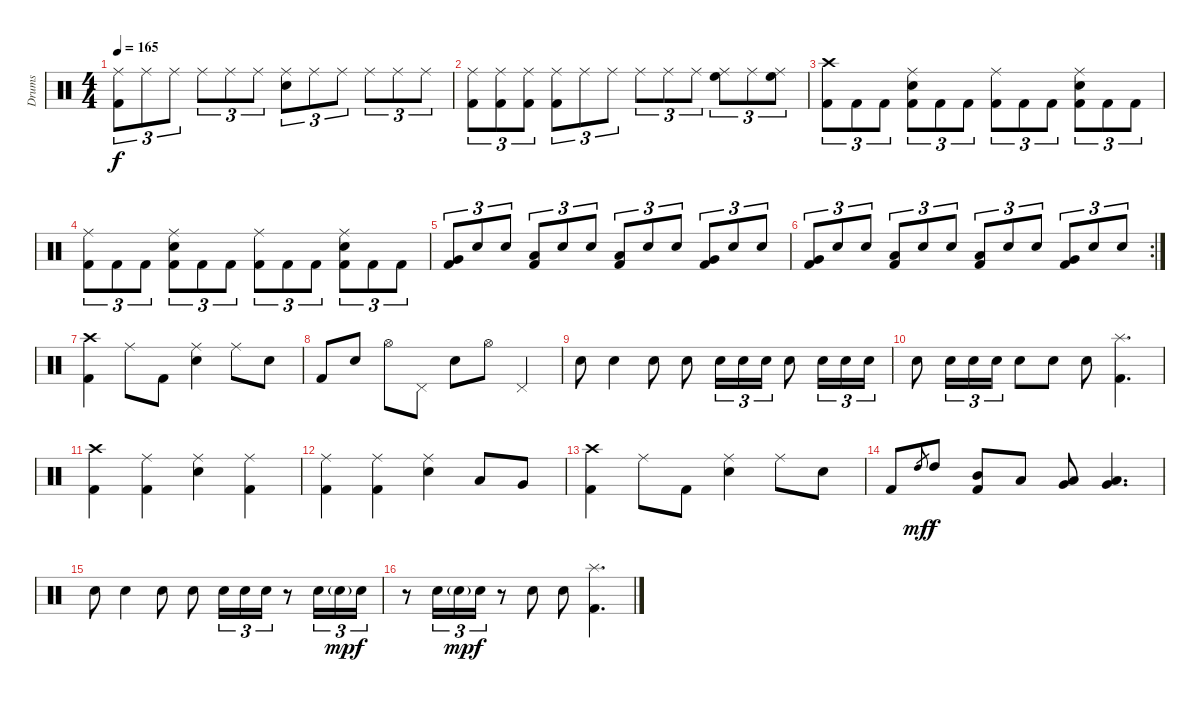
\track ("Drums" "Drums") {instrument percussion}
\staff {score}
\articulation defaults
\ts (4 4)
\tempo 165
\clef neutral
\ks c
("Ride (middle)" "Kick (hit) 2").8{tu (3 2) dy f} "Ride (middle)".8{tu (3 2)} "Ride (middle)".8{tu (3 2)} "Ride (middle)".8{tu (3 2)} "Ride (middle)".8{tu (3 2)} "Ride (middle)".8{tu (3 2)} ("Ride (middle)" "Electric Snare (hit)").8{tu (3 2)} "Ride (middle)".8{tu (3 2)} "Ride (middle)".8{tu (3 2)} "Ride (middle)".8{tu (3 2)} "Ride (middle)".8{tu (3 2)} "Ride (middle)".8{tu (3 2)} |
("Ride (middle)" "Kick (hit) 2").8{tu (3 2)} ("Ride (middle)" "Kick (hit) 2").8{tu (3 2)} ("Ride (middle)" "Kick (hit) 2").8{tu (3 2)} ("Ride (middle)" "Kick (hit) 2").8{tu (3 2)} "Ride (middle)".8{tu (3 2)} "Ride (middle)".8{tu (3 2)} "Ride (middle)".8{tu (3 2)} "Ride (middle)".8{tu (3 2)} "Ride (middle)".8{tu (3 2)} ("Ride (middle)" "High Floor Tom (hit)").8{tu (3 2)} "Ride (middle)".8{tu (3 2)} ("Ride (middle)" "High Floor Tom (hit)").8{tu (3 2)} |
("Crash high (hit)" "Kick (hit) 2").8{tu (3 2)} "Kick (hit) 2".8{tu (3 2)} "Kick (hit) 2".8{tu (3 2)} ("Ride (middle)" "Electric Snare (hit)" "Kick (hit) 2").8{tu (3 2)} "Kick (hit) 2".8{tu (3 2)} "Kick (hit) 2".8{tu (3 2)} ("Ride (middle)" "Kick (hit) 2").8{tu (3 2)} "Kick (hit) 2".8{tu (3 2)} "Kick (hit) 2".8{tu (3 2)} ("Ride (middle)" "Electric Snare (hit)" "Kick (hit) 2").8{tu (3 2)} "Kick (hit) 2".8{tu (3 2)} "Kick (hit) 2".8{tu (3 2)} |
("Ride (middle)" "Kick (hit) 2").8{tu (3 2)} "Kick (hit) 2".8{tu (3 2)} "Kick (hit) 2".8{tu (3 2)} ("Ride (middle)" "Electric Snare (hit)" "Kick (hit) 2").8{tu (3 2)} "Kick (hit) 2".8{tu (3 2)} "Kick (hit) 2".8{tu (3 2)} ("Ride (middle)" "Kick (hit) 2").8{tu (3 2)} "Kick (hit) 2".8{tu (3 2)} "Kick (hit) 2".8{tu (3 2)} ("Ride (middle)" "Electric Snare (hit)" "Kick (hit) 2").8{tu (3 2)} "Kick (hit) 2".8{tu (3 2)} "Kick (hit) 2".8{tu (3 2)} |
("Very Low Tom (hit)" "Kick (hit) 2").8{tu (3 2)} "Electric Snare (hit)".8{tu (3 2)} "Electric Snare (hit)".8{tu (3 2)} ("Low Floor Tom (hit)" "Kick (hit) 2").8{tu (3 2)} "Electric Snare (hit)".8{tu (3 2)} "Electric Snare (hit)".8{tu (3 2)} ("Low Tom (hit)" "Kick (hit) 2").8{tu (3 2)} "Electric Snare (hit)".8{tu (3 2)} "Electric Snare (hit)".8{tu (3 2)} ("Very Low Tom (hit)" "Kick (hit) 2").8{tu (3 2)} "Electric Snare (hit)".8{tu (3 2)} "Electric Snare (hit)".8{tu (3 2)} |
\rc 2
("Very Low Tom (hit)" "Kick (hit) 2").8{tu (3 2)} "Electric Snare (hit)".8{tu (3 2)} "Electric Snare (hit)".8{tu (3 2)} ("Low Floor Tom (hit)" "Kick (hit) 2").8{tu (3 2)} "Electric Snare (hit)".8{tu (3 2)} "Electric Snare (hit)".8{tu (3 2)} ("Low Tom (hit)" "Kick (hit) 2").8{tu (3 2)} "Electric Snare (hit)".8{tu (3 2)} "Electric Snare (hit)".8{tu (3 2)} ("Very Low Tom (hit)" "Kick (hit) 2").8{tu (3 2)} "Electric Snare (hit)".8{tu (3 2)} "Electric Snare (hit)".8{tu (3 2)} |
("Crash high (hit)" "Kick (hit) 2").4 "Ride (middle)".8 "Kick (hit) 2".8 ("Ride (middle)" "Electric Snare (hit)").4 "Ride (middle)".8 "Electric Snare (hit)".8 |
"Kick (hit) 2".8 "Electric Snare (hit)".8 "Hi-Hat (open)".8 "Pedal Hi-Hat (hit)".8 "Electric Snare (hit)".8 "Hi-Hat (open)".8 "Pedal Hi-Hat (hit)".4 |
"Electric Snare (hit)".8 "Electric Snare (hit)".4 "Electric Snare (hit)".8 "Electric Snare (hit)".8 "Electric Snare (hit)".16{tu (3 2)} "Electric Snare (hit)".16{tu (3 2)} "Electric Snare (hit)".16{tu (3 2)} "Electric Snare (hit)".8 "Electric Snare (hit)".16{tu (3 2)} "Electric Snare (hit)".16{tu (3 2)} "Electric Snare (hit)".16{tu (3 2)} |
"Electric Snare (hit)".8 "Electric Snare (hit)".16{tu (3 2)} "Electric Snare (hit)".16{tu (3 2)} "Electric Snare (hit)".16{tu (3 2)} "Electric Snare (hit)".8 "Electric Snare (hit)".8 "Electric Snare (hit)".8 ("Splash (hit)" "Kick (hit) 2").4{d} |
("Crash high (hit)" "Kick (hit) 2").4 ("Ride (middle)" "Kick (hit) 2").4 ("Ride (middle)" "Electric Snare (hit)").4 ("Ride (middle)" "Kick (hit) 2").4 |
("Ride (middle)" "Kick (hit) 2").4 ("Ride (middle)" "Kick (hit) 2").4 ("Ride (middle)" "Electric Snare (hit)").4 "Low Tom (hit)".8 "Very Low Tom (hit)".8 |
("Crash high (hit)" "Kick (hit) 2").4 "Ride (middle)".8 "Kick (hit) 2".8 ("Ride (middle)" "Electric Snare (hit)").4 "Ride (middle)".8 "Electric Snare (hit)".8 |
"Kick (hit) 2".8 "High Tom (hit)".8{gr dy mf} "High Tom (hit)".8{dy f} ("Mid Tom (hit)" "Kick (hit) 2").8 "Low Tom (hit)".8 ("Very Low Tom (hit)" "Low Floor Tom (hit)").8 ("Very Low Tom (hit)" "Low Floor Tom (hit)").4{d} |
"Electric Snare (hit)".8 "Electric Snare (hit)".4 "Electric Snare (hit)".8 "Electric Snare (hit)".8 "Electric Snare (hit)".16{tu (3 2)} "Electric Snare (hit)".16{tu (3 2)} "Electric Snare (hit)".16{tu (3 2)} r.8 "Electric Snare (hit)".16{tu (3 2)} "Electric Snare (hit)"{g}.16{tu (3 2) dy mp} "Electric Snare (hit)".16{tu (3 2) dy f} |
r.8 "Electric Snare (hit)".16{tu (3 2)} "Electric Snare (hit)"{g}.16{tu (3 2) dy mp} "Electric Snare (hit)".16{tu (3 2) dy f} r.8 "Electric Snare (hit)".8 "Electric Snare (hit)".8 ("Splash (hit)" "Kick (hit) 2").4{d}
